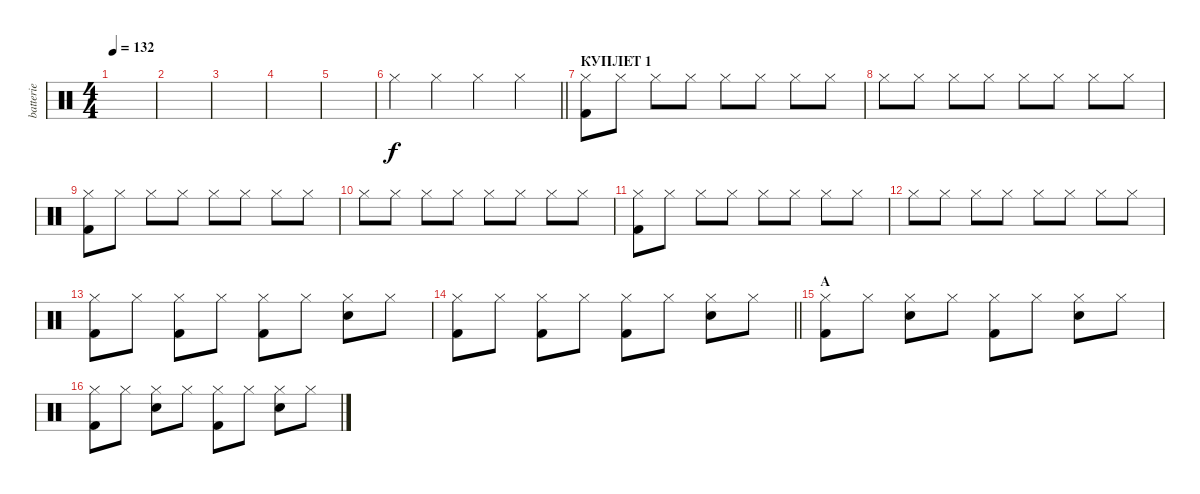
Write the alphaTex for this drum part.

\track ("batterie" "batterie") {instrument percussion}
\staff {score}
\articulation defaults
\ts (4 4)
\tempo 132
\clef neutral
\ks c
|
|
|
|
|
\barLineRight lightlight "Hi-Hat (closed)".4 "Hi-Hat (closed)".4 "Hi-Hat (closed)".4 "Hi-Hat (closed)".4
|
\section ("" "КУПЛЕТ 1")
("Hi-Hat (closed)" "Kick (hit) 2").8 "Hi-Hat (closed)".8 "Hi-Hat (closed)".8 "Hi-Hat (closed)".8 "Hi-Hat (closed)".8 "Hi-Hat (closed)".8 "Hi-Hat (closed)".8 "Hi-Hat (closed)".8 |
"Hi-Hat (closed)".8 "Hi-Hat (closed)".8 "Hi-Hat (closed)".8 "Hi-Hat (closed)".8 "Hi-Hat (closed)".8 "Hi-Hat (closed)".8 "Hi-Hat (closed)".8 "Hi-Hat (closed)".8 |
("Hi-Hat (closed)" "Kick (hit) 2").8 "Hi-Hat (closed)".8 "Hi-Hat (closed)".8 "Hi-Hat (closed)".8 "Hi-Hat (closed)".8 "Hi-Hat (closed)".8 "Hi-Hat (closed)".8 "Hi-Hat (closed)".8 |
"Hi-Hat (closed)".8 "Hi-Hat (closed)".8 "Hi-Hat (closed)".8 "Hi-Hat (closed)".8 "Hi-Hat (closed)".8 "Hi-Hat (closed)".8 "Hi-Hat (closed)".8 "Hi-Hat (closed)".8 |
("Hi-Hat (closed)" "Kick (hit) 2").8 "Hi-Hat (closed)".8 "Hi-Hat (closed)".8 "Hi-Hat (closed)".8 "Hi-Hat (closed)".8 "Hi-Hat (closed)".8 "Hi-Hat (closed)".8 "Hi-Hat (closed)".8 |
"Hi-Hat (closed)".8 "Hi-Hat (closed)".8 "Hi-Hat (closed)".8 "Hi-Hat (closed)".8 "Hi-Hat (closed)".8 "Hi-Hat (closed)".8 "Hi-Hat (closed)".8 "Hi-Hat (closed)".8 |
("Hi-Hat (closed)" "Kick (hit) 2").8 "Hi-Hat (closed)".8 ("Hi-Hat (closed)" "Kick (hit) 2").8 "Hi-Hat (closed)".8 ("Hi-Hat (closed)" "Kick (hit) 2").8 "Hi-Hat (closed)".8 ("Hi-Hat (closed)" "Electric Snare (hit)").8 "Hi-Hat (closed)".8 |
\barLineRight lightlight
("Hi-Hat (closed)" "Kick (hit) 2").8 "Hi-Hat (closed)".8 ("Hi-Hat (closed)" "Kick (hit) 2").8 "Hi-Hat (closed)".8 ("Hi-Hat (closed)" "Kick (hit) 2").8 "Hi-Hat (closed)".8 ("Hi-Hat (closed)" "Electric Snare (hit)").8 "Hi-Hat (closed)".8 |
\section ("" "А")
("Hi-Hat (closed)" "Kick (hit) 2").8 "Hi-Hat (closed)".8 ("Hi-Hat (closed)" "Electric Snare (hit)").8 "Hi-Hat (closed)".8 ("Hi-Hat (closed)" "Kick (hit) 2").8 "Hi-Hat (closed)".8 ("Hi-Hat (closed)" "Electric Snare (hit)").8 "Hi-Hat (closed)".8 |
("Hi-Hat (closed)" "Kick (hit) 2").8 "Hi-Hat (closed)".8 ("Hi-Hat (closed)" "Electric Snare (hit)").8 "Hi-Hat (closed)".8 ("Hi-Hat (closed)" "Kick (hit) 2").8 "Hi-Hat (closed)".8 ("Hi-Hat (closed)" "Electric Snare (hit)").8 "Hi-Hat (closed)".8
